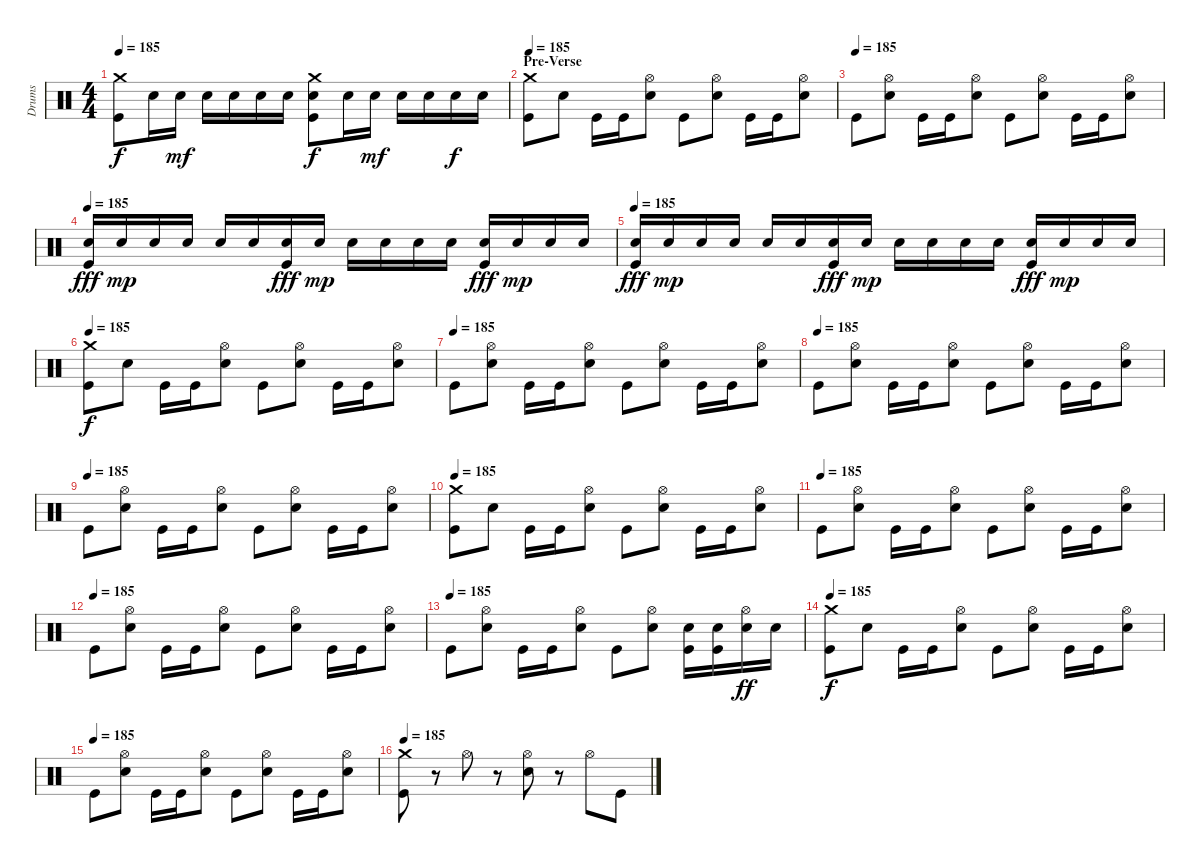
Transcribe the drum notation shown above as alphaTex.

\track ("Drums" "Drums") {instrument percussion}
\staff {score}
\articulation defaults
\ts (4 4)
\tempo 185
\clef neutral
\ks c
("Crash medium (hit)" "Kick (hit)").8{dy f} "Electric Snare (hit)".16 "Electric Snare (hit)".16{dy mf} "Electric Snare (hit)".16 "Electric Snare (hit)".16 "Electric Snare (hit)".16 "Electric Snare (hit)".16 ("Crash medium (hit)" "Electric Snare (hit)" "Kick (hit)").8{dy f} "Electric Snare (hit)".16 "Electric Snare (hit)".16{dy mf} "Electric Snare (hit)".16 "Electric Snare (hit)".16 "Electric Snare (hit)".16{dy f} "Electric Snare (hit)".16 |
\section ("" "Pre-Verse")
\tempo 185
("Crash medium (hit)" "Kick (hit)").8 "Electric Snare (hit)".8 "Kick (hit)".16 "Kick (hit)".16 ("Hi-Hat (open)" "Electric Snare (hit)").8 "Kick (hit)".8 ("Hi-Hat (open)" "Electric Snare (hit)").8 "Kick (hit)".16 "Kick (hit)".16 ("Hi-Hat (open)" "Electric Snare (hit)").8 |
\tempo (185)
"Kick (hit)".8 ("Hi-Hat (open)" "Electric Snare (hit)").8 "Kick (hit)".16 "Kick (hit)".16 ("Hi-Hat (open)" "Electric Snare (hit)").8 "Kick (hit)".8 ("Hi-Hat (open)" "Electric Snare (hit)").8 "Kick (hit)".16 "Kick (hit)".16 ("Hi-Hat (open)" "Electric Snare (hit)").8 |
\tempo 185
("Electric Snare (hit)" "Kick (hit)").16{dy fff} "Electric Snare (hit)".16{dy mp} "Electric Snare (hit)".16 "Electric Snare (hit)".16 "Electric Snare (hit)".16 "Electric Snare (hit)".16 ("Electric Snare (hit)" "Kick (hit)").16{dy fff} "Electric Snare (hit)".16{dy mp} "Electric Snare (hit)".16 "Electric Snare (hit)".16 "Electric Snare (hit)".16 "Electric Snare (hit)".16 ("Electric Snare (hit)" "Kick (hit)").16{dy fff} "Electric Snare (hit)".16{dy mp} "Electric Snare (hit)".16 "Electric Snare (hit)".16 |
\tempo 185
("Electric Snare (hit)" "Kick (hit)").16{dy fff} "Electric Snare (hit)".16{dy mp} "Electric Snare (hit)".16 "Electric Snare (hit)".16 "Electric Snare (hit)".16 "Electric Snare (hit)".16 ("Electric Snare (hit)" "Kick (hit)").16{dy fff} "Electric Snare (hit)".16{dy mp} "Electric Snare (hit)".16 "Electric Snare (hit)".16 "Electric Snare (hit)".16 "Electric Snare (hit)".16 ("Electric Snare (hit)" "Kick (hit)").16{dy fff} "Electric Snare (hit)".16{dy mp} "Electric Snare (hit)".16 "Electric Snare (hit)".16 |
\tempo 185
("Crash medium (hit)" "Kick (hit)").8{dy f} "Electric Snare (hit)".8 "Kick (hit)".16 "Kick (hit)".16 ("Hi-Hat (open)" "Electric Snare (hit)").8 "Kick (hit)".8 ("Hi-Hat (open)" "Electric Snare (hit)").8 "Kick (hit)".16 "Kick (hit)".16 ("Hi-Hat (open)" "Electric Snare (hit)").8 |
\tempo (185)
"Kick (hit)".8 ("Hi-Hat (open)" "Electric Snare (hit)").8 "Kick (hit)".16 "Kick (hit)".16 ("Hi-Hat (open)" "Electric Snare (hit)").8 "Kick (hit)".8 ("Hi-Hat (open)" "Electric Snare (hit)").8 "Kick (hit)".16 "Kick (hit)".16 ("Hi-Hat (open)" "Electric Snare (hit)").8 |
\tempo (185)
"Kick (hit)".8 ("Hi-Hat (open)" "Electric Snare (hit)").8 "Kick (hit)".16 "Kick (hit)".16 ("Hi-Hat (open)" "Electric Snare (hit)").8 "Kick (hit)".8 ("Hi-Hat (open)" "Electric Snare (hit)").8 "Kick (hit)".16 "Kick (hit)".16 ("Hi-Hat (open)" "Electric Snare (hit)").8 |
\tempo (185)
"Kick (hit)".8 ("Hi-Hat (open)" "Electric Snare (hit)").8 "Kick (hit)".16 "Kick (hit)".16 ("Hi-Hat (open)" "Electric Snare (hit)").8 "Kick (hit)".8 ("Hi-Hat (open)" "Electric Snare (hit)").8 "Kick (hit)".16 "Kick (hit)".16 ("Hi-Hat (open)" "Electric Snare (hit)").8 |
\tempo 185
("Crash medium (hit)" "Kick (hit)").8 "Electric Snare (hit)".8 "Kick (hit)".16 "Kick (hit)".16 ("Hi-Hat (open)" "Electric Snare (hit)").8 "Kick (hit)".8 ("Hi-Hat (open)" "Electric Snare (hit)").8 "Kick (hit)".16 "Kick (hit)".16 ("Hi-Hat (open)" "Electric Snare (hit)").8 |
\tempo (185)
"Kick (hit)".8 ("Hi-Hat (open)" "Electric Snare (hit)").8 "Kick (hit)".16 "Kick (hit)".16 ("Hi-Hat (open)" "Electric Snare (hit)").8 "Kick (hit)".8 ("Hi-Hat (open)" "Electric Snare (hit)").8 "Kick (hit)".16 "Kick (hit)".16 ("Hi-Hat (open)" "Electric Snare (hit)").8 |
\tempo (185)
"Kick (hit)".8 ("Hi-Hat (open)" "Electric Snare (hit)").8 "Kick (hit)".16 "Kick (hit)".16 ("Hi-Hat (open)" "Electric Snare (hit)").8 "Kick (hit)".8 ("Hi-Hat (open)" "Electric Snare (hit)").8 "Kick (hit)".16 "Kick (hit)".16 ("Hi-Hat (open)" "Electric Snare (hit)").8 |
\tempo (185)
"Kick (hit)".8 ("Hi-Hat (open)" "Electric Snare (hit)").8 "Kick (hit)".16 "Kick (hit)".16 ("Hi-Hat (open)" "Electric Snare (hit)").8 "Kick (hit)".8 ("Hi-Hat (open)" "Electric Snare (hit)").8 ("Electric Snare (hit)" "Kick (hit)").16 ("Electric Snare (hit)" "Kick (hit)").16 ("Hi-Hat (open)" "Electric Snare (hit)").16{dy ff} "Electric Snare (hit)".16 |
\tempo 185
("Crash medium (hit)" "Kick (hit)").8{dy f} "Electric Snare (hit)".8 "Kick (hit)".16 "Kick (hit)".16 ("Hi-Hat (open)" "Electric Snare (hit)").8 "Kick (hit)".8 ("Hi-Hat (open)" "Electric Snare (hit)").8 "Kick (hit)".16 "Kick (hit)".16 ("Hi-Hat (open)" "Electric Snare (hit)").8 |
\tempo (185)
"Kick (hit)".8 ("Hi-Hat (open)" "Electric Snare (hit)").8 "Kick (hit)".16 "Kick (hit)".16 ("Hi-Hat (open)" "Electric Snare (hit)").8 "Kick (hit)".8 ("Hi-Hat (open)" "Electric Snare (hit)").8 "Kick (hit)".16 "Kick (hit)".16 ("Hi-Hat (open)" "Electric Snare (hit)").8 |
\tempo 185
("Crash medium (hit)" "Kick (hit)").8 r.8 "Hi-Hat (open)".8 r.8 ("Hi-Hat (open)" "Electric Snare (hit)").8 r.8 "Hi-Hat (open)".8 "Kick (hit)".8
